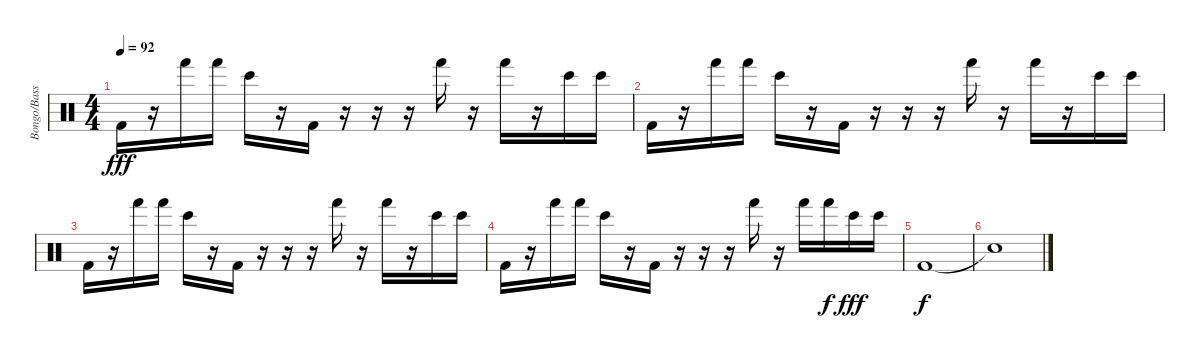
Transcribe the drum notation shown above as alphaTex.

\track ("Bongo/Bass Drum" "Bongo/Bass") {instrument percussion}
\staff
\articulation defaults
\ts (4 4)
\tempo 92
\clef neutral
\ks c "Kick (hit) 2".16{dy fff}
r.16 "Hand (hit)".16 "Hand (hit)".16 "Bongo High (hit)".16 r.16 "Kick (hit) 2".16 r.16 r.16 r.16 "Hand (hit)".16 r.16 "Hand (hit)".16 r.16 "Bongo High (hit)".16 "Bongo High (hit)".16 |
"Kick (hit) 2".16 r.16 "Hand (hit)".16 "Hand (hit)".16 "Bongo High (hit)".16 r.16 "Kick (hit) 2".16 r.16 r.16 r.16 "Hand (hit)".16 r.16 "Hand (hit)".16 r.16 "Bongo High (hit)".16 "Bongo High (hit)".16 |
"Kick (hit) 2".16 r.16 "Hand (hit)".16 "Hand (hit)".16 "Bongo High (hit)".16 r.16 "Kick (hit) 2".16 r.16 r.16 r.16 "Hand (hit)".16 r.16 "Hand (hit)".16 r.16 "Bongo High (hit)".16 "Bongo High (hit)".16 |
"Kick (hit) 2".16 r.16 "Hand (hit)".16 "Hand (hit)".16 "Bongo High (hit)".16 r.16 "Kick (hit) 2".16 r.16 r.16 r.16 "Hand (hit)".16 r.16 "Hand (hit)".16 "Hand (hit)".16{dy f} "Bongo High (hit)".16{dy fff} "Bongo High (hit)".16 |
"Kick (hit) 2".1{dy f} |
"Snare (hit)"{t}.1
